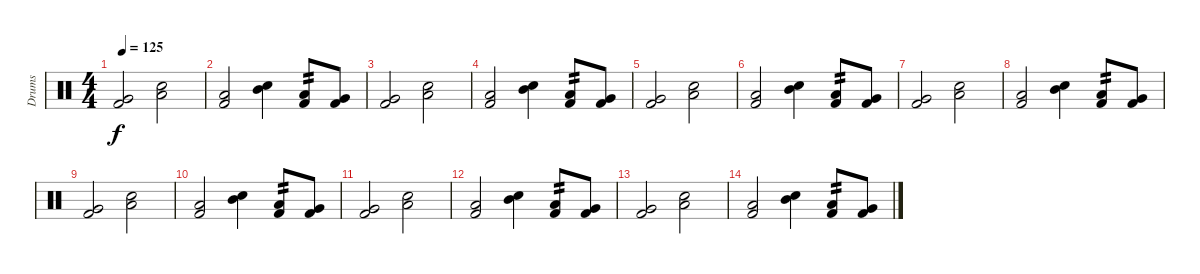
\track ("Drums" "Drums") {instrument percussion}
\staff {score}
\articulation defaults
\ts (4 4)
\tempo 125
\clef neutral
\ks c
("Very Low Tom (hit)" "Kick (hit) 2").2{dy f} ("Low Tom (hit)" "Snare (hit) 2").2 |
("Low Tom (hit)" "Kick (hit) 2").2 ("Mid Tom (hit)" "Snare (hit) 2").4 ("Low Tom (hit)" "Kick (hit) 2").8{tp 2} ("Very Low Tom (hit)" "Kick (hit) 2").8 |
("Very Low Tom (hit)" "Kick (hit) 2").2 ("Low Tom (hit)" "Snare (hit) 2").2 |
("Low Tom (hit)" "Kick (hit) 2").2 ("Mid Tom (hit)" "Snare (hit) 2").4 ("Low Tom (hit)" "Kick (hit) 2").8{tp 2} ("Very Low Tom (hit)" "Kick (hit) 2").8 |
("Very Low Tom (hit)" "Kick (hit) 2").2 ("Low Tom (hit)" "Snare (hit) 2").2 |
("Low Tom (hit)" "Kick (hit) 2").2 ("Mid Tom (hit)" "Snare (hit) 2").4 ("Low Tom (hit)" "Kick (hit) 2").8{tp 2} ("Very Low Tom (hit)" "Kick (hit) 2").8 |
("Very Low Tom (hit)" "Kick (hit) 2").2{volume 7} ("Low Tom (hit)" "Snare (hit) 2").2 |
("Low Tom (hit)" "Kick (hit) 2").2 ("Mid Tom (hit)" "Snare (hit) 2").4 ("Low Tom (hit)" "Kick (hit) 2").8{tp 2} ("Very Low Tom (hit)" "Kick (hit) 2").8 |
("Very Low Tom (hit)" "Kick (hit) 2").2 ("Low Tom (hit)" "Snare (hit) 2").2 |
("Low Tom (hit)" "Kick (hit) 2").2 ("Mid Tom (hit)" "Snare (hit) 2").4 ("Low Tom (hit)" "Kick (hit) 2").8{tp 2} ("Very Low Tom (hit)" "Kick (hit) 2").8 |
("Very Low Tom (hit)" "Kick (hit) 2").2{volume 1} ("Low Tom (hit)" "Snare (hit) 2").2 |
("Low Tom (hit)" "Kick (hit) 2").2 ("Mid Tom (hit)" "Snare (hit) 2").4 ("Low Tom (hit)" "Kick (hit) 2").8{tp 2} ("Very Low Tom (hit)" "Kick (hit) 2").8 |
("Very Low Tom (hit)" "Kick (hit) 2").2 ("Low Tom (hit)" "Snare (hit) 2").2 |
("Low Tom (hit)" "Kick (hit) 2").2{volume 0} ("Mid Tom (hit)" "Snare (hit) 2").4 ("Low Tom (hit)" "Kick (hit) 2").8{tp 2} ("Very Low Tom (hit)" "Kick (hit) 2").8
